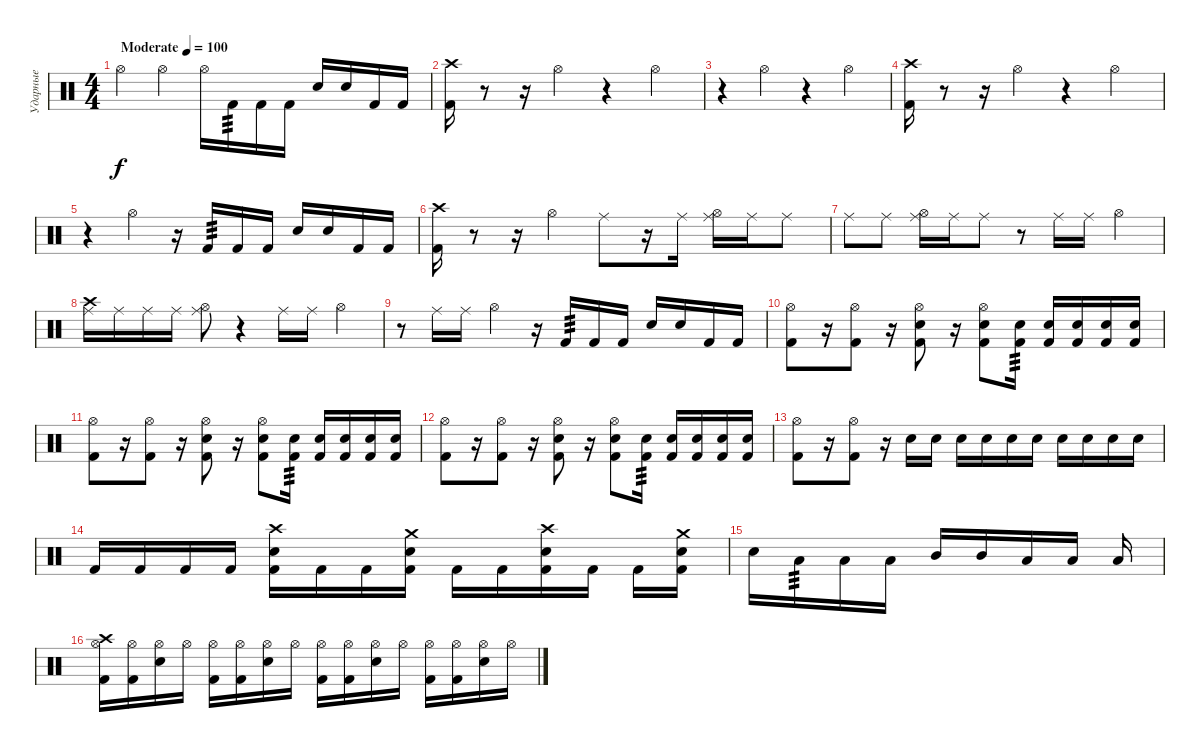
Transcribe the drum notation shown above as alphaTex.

\track ("Ударные" "Ударные") {instrument percussion}
\staff {score}
\articulation defaults
\ts (4 4)
\tempo (100 "Moderate")
\clef neutral
\ks c "Hi-Hat (open)".4{dy f} "Hi-Hat (open)".4 "Hi-Hat (open)".16 "Kick (hit) 2".16{tp 3} "Kick (hit) 2".16 "Kick (hit) 2".16 "Snare (hit) 2".16 "Snare (hit) 2".16 "Kick (hit) 2".16 "Kick (hit) 2".16
|
("Crash high (hit)" "Kick (hit) 2").16 r.8 r.16 "Hi-Hat (open)".4 r.4 "Hi-Hat (open)".4 |
r.4 "Hi-Hat (open)".4 r.4 "Hi-Hat (open)".4 |
("Crash high (hit)" "Kick (hit) 2").16 r.8 r.16 "Hi-Hat (open)".4 r.4 "Hi-Hat (open)".4 |
r.4 "Hi-Hat (open)".4 r.16 "Kick (hit) 2".16{tp 3} "Kick (hit) 2".16 "Kick (hit) 2".16 "Snare (hit) 2".16 "Snare (hit) 2".16 "Kick (hit) 2".16 "Kick (hit) 2".16 |
("Crash high (hit)" "Kick (hit) 2").16 r.8 r.16 "Hi-Hat (open)".4 "Ride (middle)".8 r.16 "Ride (middle)".16 ("Hi-Hat (open)" "Ride (middle)").16 "Ride (middle)".16 "Ride (middle)".8 |
"Ride (middle)".8 "Ride (middle)".8 ("Hi-Hat (open)" "Ride (middle)").16 "Ride (middle)".16 "Ride (middle)".8 r.8 "Ride (middle)".16 "Ride (middle)".16 "Hi-Hat (open)".4 |
("Crash high (hit)" "Ride (middle)").16 "Ride (middle)".16 "Ride (middle)".16 "Ride (middle)".16 ("Hi-Hat (open)" "Ride (middle)").8 r.4 "Ride (middle)".16 "Ride (middle)".16 "Hi-Hat (open)".4 |
r.8 "Ride (middle)".16 "Ride (middle)".16 "Hi-Hat (open)".4 r.16 "Kick (hit) 2".16{tp 3} "Kick (hit) 2".16 "Kick (hit) 2".16 "Snare (hit) 2".16 "Snare (hit) 2".16 "Kick (hit) 2".16 "Kick (hit) 2".16 |
("Hi-Hat (open)" "Kick (hit) 2").8 r.16 ("Hi-Hat (open)" "Kick (hit) 2").8 r.16 ("Hi-Hat (open)" "Snare (hit) 2" "Kick (hit) 2").8 r.16 ("Hi-Hat (open)" "Snare (hit) 2" "Kick (hit) 2").8 ("Snare (hit) 2" "Kick (hit) 2").16{tp 3} ("Snare (hit) 2" "Kick (hit) 2").16 ("Snare (hit) 2" "Kick (hit) 2").16 ("Snare (hit) 2" "Kick (hit) 2").16 ("Snare (hit) 2" "Kick (hit) 2").16 |
("Hi-Hat (open)" "Kick (hit) 2").8 r.16 ("Hi-Hat (open)" "Kick (hit) 2").8 r.16 ("Hi-Hat (open)" "Snare (hit) 2" "Kick (hit) 2").8 r.16 ("Hi-Hat (open)" "Snare (hit) 2" "Kick (hit) 2").8 ("Snare (hit) 2" "Kick (hit) 2").16{tp 3} ("Snare (hit) 2" "Kick (hit) 2").16 ("Snare (hit) 2" "Kick (hit) 2").16 ("Snare (hit) 2" "Kick (hit) 2").16 ("Snare (hit) 2" "Kick (hit) 2").16 |
("Hi-Hat (open)" "Kick (hit) 2").8 r.16 ("Hi-Hat (open)" "Kick (hit) 2").8 r.16 ("Hi-Hat (open)" "Snare (hit) 2" "Kick (hit) 2").8 r.16 ("Hi-Hat (open)" "Snare (hit) 2" "Kick (hit) 2").8 ("Snare (hit) 2" "Kick (hit) 2").16{tp 3} ("Snare (hit) 2" "Kick (hit) 2").16 ("Snare (hit) 2" "Kick (hit) 2").16 ("Snare (hit) 2" "Kick (hit) 2").16 ("Snare (hit) 2" "Kick (hit) 2").16 |
("Hi-Hat (open)" "Kick (hit) 2").8 r.16 ("Hi-Hat (open)" "Kick (hit) 2").8 r.16 "Snare (hit) 2".16 "Snare (hit) 2".16 "Snare (hit) 2".16 "Snare (hit) 2".16 "Snare (hit) 2".16 "Snare (hit) 2".16 "Snare (hit) 2".16 "Snare (hit) 2".16 "Snare (hit) 2".16 "Snare (hit) 2".16 |
"Kick (hit) 2".16 "Kick (hit) 2".16 "Kick (hit) 2".16 "Kick (hit) 2".16 ("Crash high (hit)" "Snare (hit) 2" "Kick (hit) 2").16 "Kick (hit) 2".16 "Kick (hit) 2".16 ("Crash medium (hit)" "Snare (hit) 2" "Kick (hit) 2").16 "Kick (hit) 2".16 "Kick (hit) 2".16 ("Crash high (hit)" "Snare (hit) 2" "Kick (hit) 2").16 "Kick (hit) 2".16 "Kick (hit) 2".16 ("Crash medium (hit)" "Snare (hit) 2" "Kick (hit) 2").16 |
"Snare (hit) 2".16 "Low Tom (hit)".16{tp 3} "Low Tom (hit)".16 "Low Tom (hit)".16 "Mid Tom (hit)".16 "Mid Tom (hit)".16 "Low Floor Tom (hit)".16 "Low Floor Tom (hit)".16 "Low Floor Tom (hit)".16 |
("Hi-Hat (open)" "Crash high (hit)" "Kick (hit) 2").16 ("Hi-Hat (open)" "Kick (hit) 2").16 ("Hi-Hat (open)" "Snare (hit) 2").16 "Hi-Hat (open)".16 ("Hi-Hat (open)" "Kick (hit) 2").16 ("Hi-Hat (open)" "Kick (hit) 2").16 ("Hi-Hat (open)" "Snare (hit) 2").16 "Hi-Hat (open)".16 ("Hi-Hat (open)" "Kick (hit) 2").16 ("Hi-Hat (open)" "Kick (hit) 2").16 ("Hi-Hat (open)" "Snare (hit) 2").16 "Hi-Hat (open)".16 ("Hi-Hat (open)" "Kick (hit) 2").16 ("Hi-Hat (open)" "Kick (hit) 2").16 ("Hi-Hat (open)" "Snare (hit) 2").16 "Hi-Hat (open)".16
